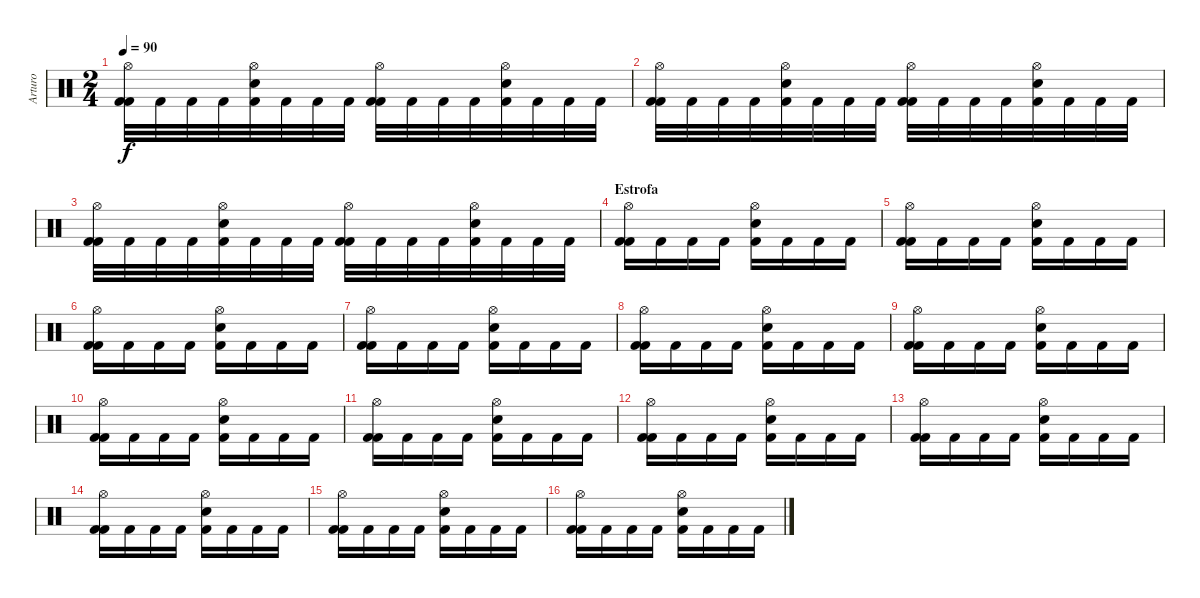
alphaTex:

\track ("Arturo" "Arturo") {instrument percussion}
\staff {score}
\articulation defaults
\ts (2 4)
\tempo 90
\clef neutral
\ks c
("Hi-Hat (open)" "Kick (hit) 2" "Kick (hit) 2").32{dy f} "Kick (hit) 2".32 "Kick (hit) 2".32 "Kick (hit) 2".32 ("Hi-Hat (open)" "Electric Snare (hit)" "Kick (hit) 2").32 "Kick (hit) 2".32 "Kick (hit) 2".32 "Kick (hit) 2".32 ("Hi-Hat (open)" "Kick (hit) 2" "Kick (hit) 2").32 "Kick (hit) 2".32 "Kick (hit) 2".32 "Kick (hit) 2".32 ("Hi-Hat (open)" "Electric Snare (hit)" "Kick (hit) 2").32 "Kick (hit) 2".32 "Kick (hit) 2".32 "Kick (hit) 2".32 |
("Hi-Hat (open)" "Kick (hit) 2" "Kick (hit) 2").32 "Kick (hit) 2".32 "Kick (hit) 2".32 "Kick (hit) 2".32 ("Hi-Hat (open)" "Electric Snare (hit)" "Kick (hit) 2").32 "Kick (hit) 2".32 "Kick (hit) 2".32 "Kick (hit) 2".32 ("Hi-Hat (open)" "Kick (hit) 2" "Kick (hit) 2").32 "Kick (hit) 2".32 "Kick (hit) 2".32 "Kick (hit) 2".32 ("Hi-Hat (open)" "Electric Snare (hit)" "Kick (hit) 2").32 "Kick (hit) 2".32 "Kick (hit) 2".32 "Kick (hit) 2".32 |
("Hi-Hat (open)" "Kick (hit) 2" "Kick (hit) 2").32 "Kick (hit) 2".32 "Kick (hit) 2".32 "Kick (hit) 2".32 ("Hi-Hat (open)" "Electric Snare (hit)" "Kick (hit) 2").32 "Kick (hit) 2".32 "Kick (hit) 2".32 "Kick (hit) 2".32 ("Hi-Hat (open)" "Kick (hit) 2" "Kick (hit) 2").32 "Kick (hit) 2".32 "Kick (hit) 2".32 "Kick (hit) 2".32 ("Hi-Hat (open)" "Electric Snare (hit)" "Kick (hit) 2").32 "Kick (hit) 2".32 "Kick (hit) 2".32 "Kick (hit) 2".32 |
\section ("" "Estrofa ")
("Hi-Hat (open)" "Kick (hit) 2" "Kick (hit) 2").16 "Kick (hit) 2".16 "Kick (hit) 2".16 "Kick (hit) 2".16 ("Hi-Hat (open)" "Electric Snare (hit)" "Kick (hit) 2").16 "Kick (hit) 2".16 "Kick (hit) 2".16 "Kick (hit) 2".16 |
("Hi-Hat (open)" "Kick (hit) 2" "Kick (hit) 2").16 "Kick (hit) 2".16 "Kick (hit) 2".16 "Kick (hit) 2".16 ("Hi-Hat (open)" "Electric Snare (hit)" "Kick (hit) 2").16 "Kick (hit) 2".16 "Kick (hit) 2".16 "Kick (hit) 2".16 |
("Hi-Hat (open)" "Kick (hit) 2" "Kick (hit) 2").16 "Kick (hit) 2".16 "Kick (hit) 2".16 "Kick (hit) 2".16 ("Hi-Hat (open)" "Electric Snare (hit)" "Kick (hit) 2").16 "Kick (hit) 2".16 "Kick (hit) 2".16 "Kick (hit) 2".16 |
("Hi-Hat (open)" "Kick (hit) 2" "Kick (hit) 2").16 "Kick (hit) 2".16 "Kick (hit) 2".16 "Kick (hit) 2".16 ("Hi-Hat (open)" "Electric Snare (hit)" "Kick (hit) 2").16 "Kick (hit) 2".16 "Kick (hit) 2".16 "Kick (hit) 2".16 |
("Hi-Hat (open)" "Kick (hit) 2" "Kick (hit) 2").16 "Kick (hit) 2".16 "Kick (hit) 2".16 "Kick (hit) 2".16 ("Hi-Hat (open)" "Electric Snare (hit)" "Kick (hit) 2").16 "Kick (hit) 2".16 "Kick (hit) 2".16 "Kick (hit) 2".16 |
("Hi-Hat (open)" "Kick (hit) 2" "Kick (hit) 2").16 "Kick (hit) 2".16 "Kick (hit) 2".16 "Kick (hit) 2".16 ("Hi-Hat (open)" "Electric Snare (hit)" "Kick (hit) 2").16 "Kick (hit) 2".16 "Kick (hit) 2".16 "Kick (hit) 2".16 |
("Hi-Hat (open)" "Kick (hit) 2" "Kick (hit) 2").16 "Kick (hit) 2".16 "Kick (hit) 2".16 "Kick (hit) 2".16 ("Hi-Hat (open)" "Electric Snare (hit)" "Kick (hit) 2").16 "Kick (hit) 2".16 "Kick (hit) 2".16 "Kick (hit) 2".16 |
("Hi-Hat (open)" "Kick (hit) 2" "Kick (hit) 2").16 "Kick (hit) 2".16 "Kick (hit) 2".16 "Kick (hit) 2".16 ("Hi-Hat (open)" "Electric Snare (hit)" "Kick (hit) 2").16 "Kick (hit) 2".16 "Kick (hit) 2".16 "Kick (hit) 2".16 |
("Hi-Hat (open)" "Kick (hit) 2" "Kick (hit) 2").16 "Kick (hit) 2".16 "Kick (hit) 2".16 "Kick (hit) 2".16 ("Hi-Hat (open)" "Electric Snare (hit)" "Kick (hit) 2").16 "Kick (hit) 2".16 "Kick (hit) 2".16 "Kick (hit) 2".16 |
("Hi-Hat (open)" "Kick (hit) 2" "Kick (hit) 2").16 "Kick (hit) 2".16 "Kick (hit) 2".16 "Kick (hit) 2".16 ("Hi-Hat (open)" "Electric Snare (hit)" "Kick (hit) 2").16 "Kick (hit) 2".16 "Kick (hit) 2".16 "Kick (hit) 2".16 |
("Hi-Hat (open)" "Kick (hit) 2" "Kick (hit) 2").16 "Kick (hit) 2".16 "Kick (hit) 2".16 "Kick (hit) 2".16 ("Hi-Hat (open)" "Electric Snare (hit)" "Kick (hit) 2").16 "Kick (hit) 2".16 "Kick (hit) 2".16 "Kick (hit) 2".16 |
("Hi-Hat (open)" "Kick (hit) 2" "Kick (hit) 2").16 "Kick (hit) 2".16 "Kick (hit) 2".16 "Kick (hit) 2".16 ("Hi-Hat (open)" "Electric Snare (hit)" "Kick (hit) 2").16 "Kick (hit) 2".16 "Kick (hit) 2".16 "Kick (hit) 2".16 |
("Hi-Hat (open)" "Kick (hit) 2" "Kick (hit) 2").16 "Kick (hit) 2".16 "Kick (hit) 2".16 "Kick (hit) 2".16 ("Hi-Hat (open)" "Electric Snare (hit)" "Kick (hit) 2").16 "Kick (hit) 2".16 "Kick (hit) 2".16 "Kick (hit) 2".16
